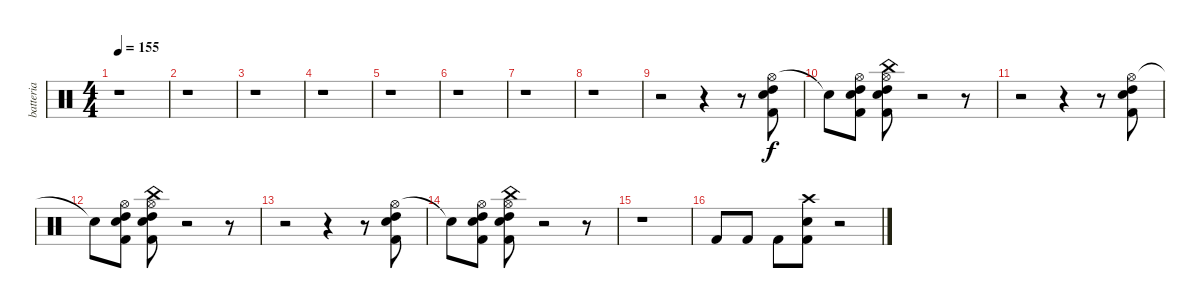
\track ("batteria" "batteria") {instrument percussion}
\staff {score}
\articulation defaults
\ts (4 4)
\tempo 155
\clef neutral
\ks c
r.1{dy f} |
r.1 |
r.1 |
r.1 |
r.1 |
r.1 |
r.1 |
r.1 |
r.2 r.4 r.8 ("Hi-Hat (open)" "High Tom (hit)" "Electric Snare (hit)" "Kick (hit) 2").8 |
"Snare (hit)"{t}.8 ("Hi-Hat (open)" "High Tom (hit)" "Electric Snare (hit)" "Kick (hit) 2").8 ("China (hit)" "High Tom (hit)" "Hi-Hat (open)" "Electric Snare (hit)" "Kick (hit) 2").8 r.2 r.8 |
r.2 r.4 r.8 ("Hi-Hat (open)" "High Tom (hit)" "Electric Snare (hit)" "Kick (hit) 2").8 |
"Snare (hit)"{t}.8 ("Hi-Hat (open)" "High Tom (hit)" "Electric Snare (hit)" "Kick (hit) 2").8 ("China (hit)" "High Tom (hit)" "Hi-Hat (open)" "Electric Snare (hit)" "Kick (hit) 2").8 r.2 r.8 |
r.2 r.4 r.8 ("Hi-Hat (open)" "High Tom (hit)" "Electric Snare (hit)" "Kick (hit) 2").8 |
"Snare (hit)"{t}.8 ("Hi-Hat (open)" "High Tom (hit)" "Electric Snare (hit)" "Kick (hit) 2").8 ("China (hit)" "High Tom (hit)" "Hi-Hat (open)" "Electric Snare (hit)" "Kick (hit) 2").8 r.2 r.8 |
r.1 |
"Kick (hit) 2".8 "Kick (hit) 2".8 "Kick (hit) 2".8 ("Crash high (hit)" "Electric Snare (hit)" "Kick (hit) 2").8 r.2
